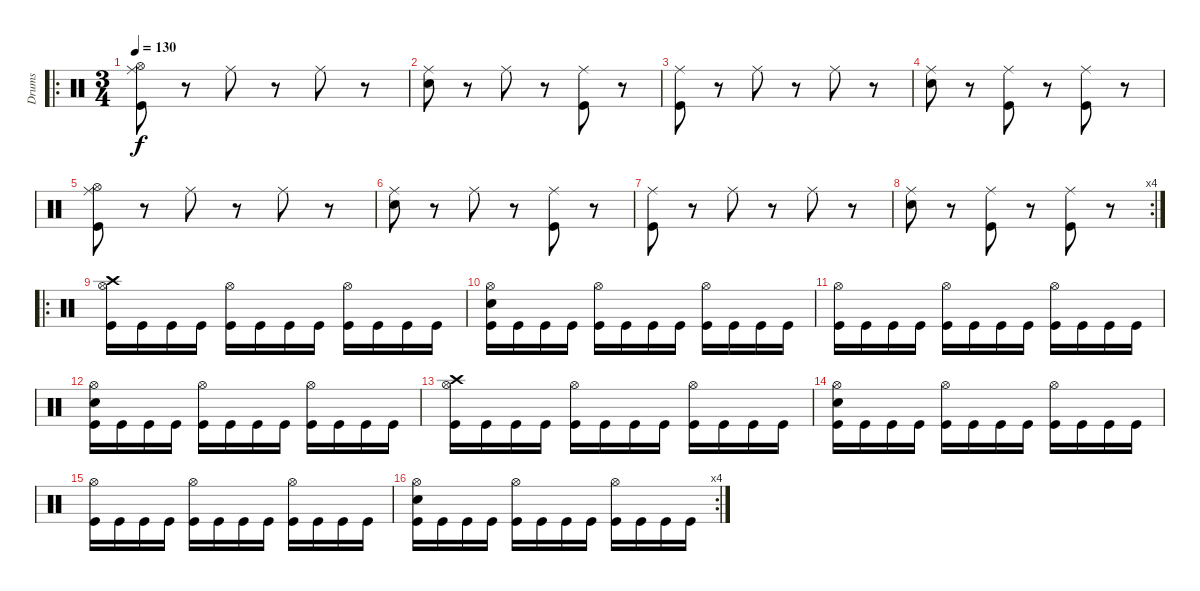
\track ("Drums" "Drums") {instrument percussion}
\staff {score}
\articulation defaults
\ro
\ts (3 4)
\tempo 130
\clef neutral
\ks c
("Ride (middle)" "Hi-Hat (open)" "Kick (hit)").8{dy f} r.8 "Ride (middle)".8 r.8 "Ride (middle)".8 r.8 |
("Ride (middle)" "Electric Snare (hit)").8 r.8 "Ride (middle)".8 r.8 ("Ride (middle)" "Kick (hit)").8 r.8 |
("Ride (middle)" "Kick (hit)").8 r.8 "Ride (middle)".8 r.8 "Ride (middle)".8 r.8 |
("Ride (middle)" "Electric Snare (hit)").8 r.8 ("Ride (middle)" "Kick (hit)").8 r.8 ("Ride (middle)" "Kick (hit)").8 r.8 |
("Ride (middle)" "Hi-Hat (open)" "Kick (hit)").8 r.8 "Ride (middle)".8 r.8 "Ride (middle)".8 r.8 |
("Ride (middle)" "Electric Snare (hit)").8 r.8 "Ride (middle)".8 r.8 ("Ride (middle)" "Kick (hit)").8 r.8 |
("Ride (middle)" "Kick (hit)").8 r.8 "Ride (middle)".8 r.8 "Ride (middle)".8 r.8 |
\rc 4
("Ride (middle)" "Electric Snare (hit)").8 r.8 ("Ride (middle)" "Kick (hit)").8 r.8 ("Ride (middle)" "Kick (hit)").8 r.8 |
\ro
("Hi-Hat (open)" "Crash high (hit)" "Kick (hit)").16 "Kick (hit)".16 "Kick (hit)".16 "Kick (hit)".16 ("Hi-Hat (open)" "Kick (hit)").16 "Kick (hit)".16 "Kick (hit)".16 "Kick (hit)".16 ("Hi-Hat (open)" "Kick (hit)").16 "Kick (hit)".16 "Kick (hit)".16 "Kick (hit)".16 |
("Hi-Hat (open)" "Electric Snare (hit)" "Kick (hit)").16 "Kick (hit)".16 "Kick (hit)".16 "Kick (hit)".16 ("Hi-Hat (open)" "Kick (hit)").16 "Kick (hit)".16 "Kick (hit)".16 "Kick (hit)".16 ("Hi-Hat (open)" "Kick (hit)").16 "Kick (hit)".16 "Kick (hit)".16 "Kick (hit)".16 |
("Hi-Hat (open)" "Kick (hit)").16 "Kick (hit)".16 "Kick (hit)".16 "Kick (hit)".16 ("Hi-Hat (open)" "Kick (hit)").16 "Kick (hit)".16 "Kick (hit)".16 "Kick (hit)".16 ("Hi-Hat (open)" "Kick (hit)").16 "Kick (hit)".16 "Kick (hit)".16 "Kick (hit)".16 |
("Hi-Hat (open)" "Electric Snare (hit)" "Kick (hit)").16 "Kick (hit)".16 "Kick (hit)".16 "Kick (hit)".16 ("Hi-Hat (open)" "Kick (hit)").16 "Kick (hit)".16 "Kick (hit)".16 "Kick (hit)".16 ("Hi-Hat (open)" "Kick (hit)").16 "Kick (hit)".16 "Kick (hit)".16 "Kick (hit)".16 |
("Hi-Hat (open)" "Crash high (hit)" "Kick (hit)").16 "Kick (hit)".16 "Kick (hit)".16 "Kick (hit)".16 ("Hi-Hat (open)" "Kick (hit)").16 "Kick (hit)".16 "Kick (hit)".16 "Kick (hit)".16 ("Hi-Hat (open)" "Kick (hit)").16 "Kick (hit)".16 "Kick (hit)".16 "Kick (hit)".16 |
("Hi-Hat (open)" "Electric Snare (hit)" "Kick (hit)").16 "Kick (hit)".16 "Kick (hit)".16 "Kick (hit)".16 ("Hi-Hat (open)" "Kick (hit)").16 "Kick (hit)".16 "Kick (hit)".16 "Kick (hit)".16 ("Hi-Hat (open)" "Kick (hit)").16 "Kick (hit)".16 "Kick (hit)".16 "Kick (hit)".16 |
("Hi-Hat (open)" "Kick (hit)").16 "Kick (hit)".16 "Kick (hit)".16 "Kick (hit)".16 ("Hi-Hat (open)" "Kick (hit)").16 "Kick (hit)".16 "Kick (hit)".16 "Kick (hit)".16 ("Hi-Hat (open)" "Kick (hit)").16 "Kick (hit)".16 "Kick (hit)".16 "Kick (hit)".16 |
\rc 4
("Hi-Hat (open)" "Electric Snare (hit)" "Kick (hit)").16 "Kick (hit)".16 "Kick (hit)".16 "Kick (hit)".16 ("Hi-Hat (open)" "Kick (hit)").16 "Kick (hit)".16 "Kick (hit)".16 "Kick (hit)".16 ("Hi-Hat (open)" "Kick (hit)").16 "Kick (hit)".16 "Kick (hit)".16 "Kick (hit)".16
